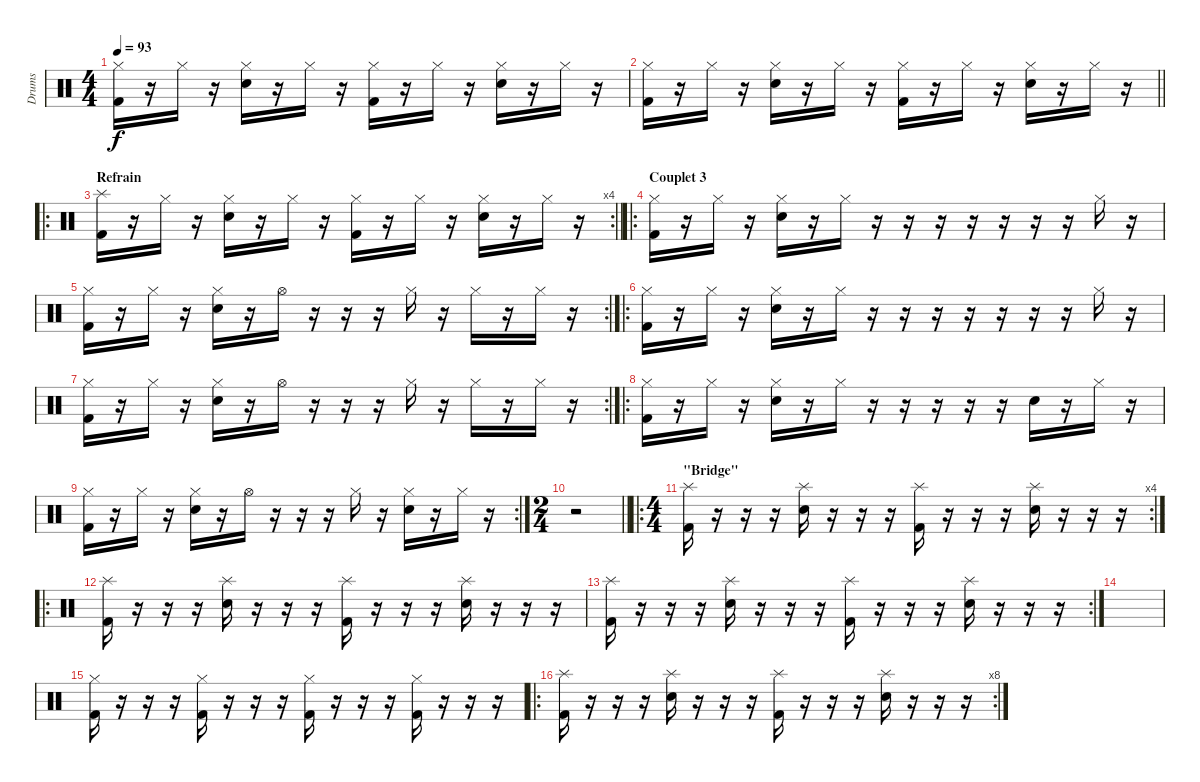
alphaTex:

\track ("Drums" "Drums") {instrument percussion}
\staff {score}
\articulation defaults
\ts (4 4)
\tempo 93
\clef neutral
\ks c
("Hi-Hat (closed)" "Kick (hit) 2").16{dy f} r.16 "Hi-Hat (closed)".16 r.16 ("Hi-Hat (closed)" "Electric Snare (hit)").16 r.16 "Hi-Hat (closed)".16 r.16 ("Hi-Hat (closed)" "Kick (hit) 2").16 r.16 "Hi-Hat (closed)".16 r.16 ("Hi-Hat (closed)" "Electric Snare (hit)").16 r.16 "Hi-Hat (closed)".16 r.16 |
\barLineRight lightlight
("Hi-Hat (closed)" "Kick (hit) 2").16 r.16 "Hi-Hat (closed)".16 r.16 ("Hi-Hat (closed)" "Electric Snare (hit)").16 r.16 "Hi-Hat (closed)".16 r.16 ("Hi-Hat (closed)" "Kick (hit) 2").16 r.16 "Hi-Hat (closed)".16 r.16 ("Hi-Hat (closed)" "Electric Snare (hit)").16 r.16 "Hi-Hat (closed)".16 r.16 |
\ro
\rc 4
\section ("" "Refrain")
\barLineRight lightlight
("Splash (hit)" "Kick (hit) 2").16 r.16 "Hi-Hat (closed)".16 r.16 ("Hi-Hat (closed)" "Electric Snare (hit)").16 r.16 "Hi-Hat (closed)".16 r.16 ("Hi-Hat (closed)" "Kick (hit) 2").16 r.16 "Hi-Hat (closed)".16 r.16 ("Hi-Hat (closed)" "Electric Snare (hit)").16 r.16 "Hi-Hat (closed)".16 r.16 |
\ro
\section ("" "Couplet 3")
("Hi-Hat (closed)" "Kick (hit) 2").16 r.16 "Hi-Hat (closed)".16 r.16 ("Hi-Hat (closed)" "Electric Snare (hit)").16 r.16 "Hi-Hat (closed)".16 r.16 r.16 r.16 r.16 r.16 r.16 r.16 "Hi-Hat (closed)".16 r.16 |
\rc 2
("Hi-Hat (closed)" "Kick (hit) 2").16 r.16 "Hi-Hat (closed)".16 r.16 ("Hi-Hat (closed)" "Electric Snare (hit)").16 r.16 "Hi-Hat (open)".16 r.16 r.16 r.16 "Hi-Hat (closed)".16 r.16 "Hi-Hat (closed)".16 r.16 "Hi-Hat (closed)".16 r.16 |
\ro
("Hi-Hat (closed)" "Kick (hit) 2").16 r.16 "Hi-Hat (closed)".16 r.16 ("Hi-Hat (closed)" "Electric Snare (hit)").16 r.16 "Hi-Hat (closed)".16 r.16 r.16 r.16 r.16 r.16 r.16 r.16 "Hi-Hat (closed)".16 r.16 |
\rc 2
("Hi-Hat (closed)" "Kick (hit) 2").16 r.16 "Hi-Hat (closed)".16 r.16 ("Hi-Hat (closed)" "Electric Snare (hit)").16 r.16 "Hi-Hat (open)".16 r.16 r.16 r.16 "Hi-Hat (closed)".16 r.16 "Hi-Hat (closed)".16 r.16 "Hi-Hat (closed)".16 r.16 |
\ro
("Hi-Hat (closed)" "Kick (hit) 2").16 r.16 "Hi-Hat (closed)".16 r.16 ("Hi-Hat (closed)" "Electric Snare (hit)").16 r.16 "Hi-Hat (closed)".16 r.16 r.16 r.16 r.16 r.16 "Electric Snare (hit)".16 r.16 "Hi-Hat (closed)".16 r.16 |
\rc 2
("Hi-Hat (closed)" "Kick (hit) 2").16 r.16 "Hi-Hat (closed)".16 r.16 ("Hi-Hat (closed)" "Electric Snare (hit)").16 r.16 "Hi-Hat (open)".16 r.16 r.16 r.16 "Hi-Hat (closed)".16 r.16 ("Hi-Hat (closed)" "Electric Snare (hit)").16 r.16 "Hi-Hat (closed)".16 r.16 |
\ts (2 4)
\barLineRight lightlight
r.2 |
\ro
\rc 4
\ts (4 4)
\section ("" "\"Bridge\"")
("Splash (hit)" "Kick (hit) 2").16 r.16 r.16 r.16 ("Splash (hit)" "Electric Snare (hit)").16 r.16 r.16 r.16 ("Splash (hit)" "Kick (hit) 2").16 r.16 r.16 r.16 ("Splash (hit)" "Electric Snare (hit)").16 r.16 r.16 r.16 |
\ro
("Splash (hit)" "Kick (hit) 2").16 r.16 r.16 r.16 ("Splash (hit)" "Electric Snare (hit)").16 r.16 r.16 r.16 ("Splash (hit)" "Kick (hit) 2").16 r.16 r.16 r.16 ("Splash (hit)" "Electric Snare (hit)").16 r.16 r.16 r.16 |
\rc 2
("Splash (hit)" "Kick (hit) 2").16 r.16 r.16 r.16 ("Splash (hit)" "Electric Snare (hit)").16 r.16 r.16 r.16 ("Splash (hit)" "Kick (hit) 2").16 r.16 r.16 r.16 ("Splash (hit)" "Electric Snare (hit)").16 r.16 r.16 r.16 |
|
("Hi-Hat (closed)" "Kick (hit) 2").16 r.16 r.16 r.16 ("Hi-Hat (closed)" "Kick (hit) 2").16 r.16 r.16 r.16 ("Hi-Hat (closed)" "Kick (hit) 2").16 r.16 r.16 r.16 ("Hi-Hat (closed)" "Kick (hit) 2").16 r.16 r.16 r.16 |
\ro
\rc 8
("Splash (hit)" "Kick (hit) 2").16 r.16 r.16 r.16 ("Splash (hit)" "Electric Snare (hit)").16 r.16 r.16 r.16 ("Splash (hit)" "Kick (hit) 2").16 r.16 r.16 r.16 ("Splash (hit)" "Electric Snare (hit)").16 r.16 r.16 r.16
